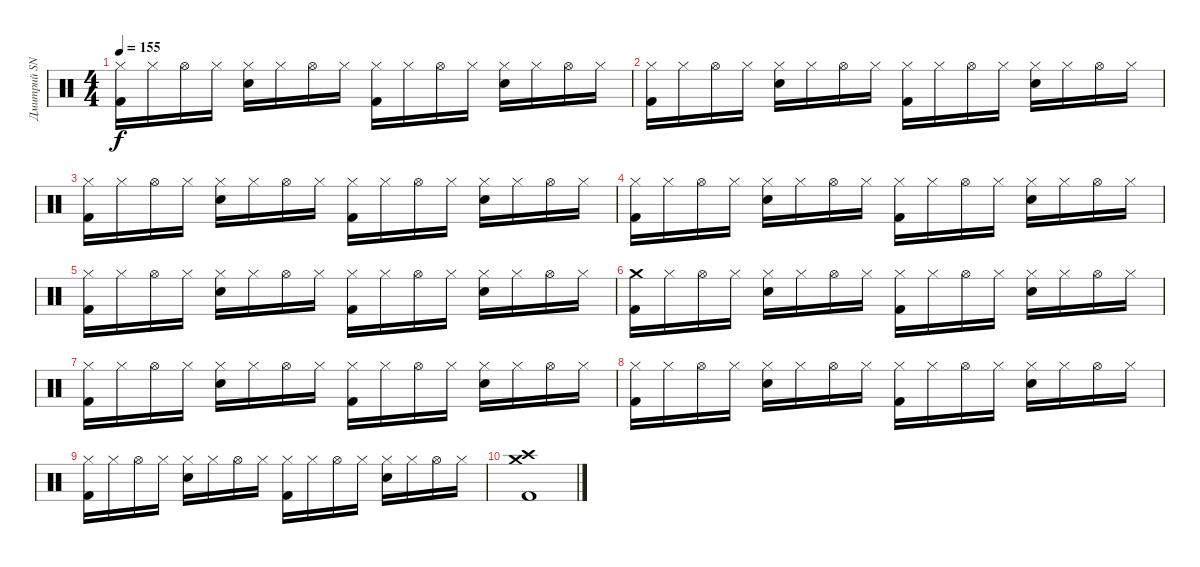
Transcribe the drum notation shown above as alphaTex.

\track ("Дмитрий SNAKE Хакимов" "Дмитрий SN") {instrument percussion}
\staff {score}
\articulation defaults
\ts (4 4)
\tempo 155
\clef neutral
\ks c
("Hi-Hat (closed)" "Kick (hit) 2").16{dy f} "Hi-Hat (closed)".16 "Hi-Hat (open)".16 "Hi-Hat (closed)".16 ("Hi-Hat (closed)" "Snare (hit) 2").16 "Hi-Hat (closed)".16 "Hi-Hat (open)".16 "Hi-Hat (closed)".16 ("Hi-Hat (closed)" "Kick (hit) 2").16 "Hi-Hat (closed)".16 "Hi-Hat (open)".16 "Hi-Hat (closed)".16 ("Hi-Hat (closed)" "Snare (hit) 2").16 "Hi-Hat (closed)".16 "Hi-Hat (open)".16 "Hi-Hat (closed)".16 |
("Hi-Hat (closed)" "Kick (hit) 2").16 "Hi-Hat (closed)".16 "Hi-Hat (open)".16 "Hi-Hat (closed)".16 ("Hi-Hat (closed)" "Snare (hit) 2").16 "Hi-Hat (closed)".16 "Hi-Hat (open)".16 "Hi-Hat (closed)".16 ("Hi-Hat (closed)" "Kick (hit) 2").16 "Hi-Hat (closed)".16 "Hi-Hat (open)".16 "Hi-Hat (closed)".16 ("Hi-Hat (closed)" "Snare (hit) 2").16 "Hi-Hat (closed)".16 "Hi-Hat (open)".16 "Hi-Hat (closed)".16 |
("Hi-Hat (closed)" "Kick (hit) 2").16 "Hi-Hat (closed)".16 "Hi-Hat (open)".16 "Hi-Hat (closed)".16 ("Hi-Hat (closed)" "Snare (hit) 2").16 "Hi-Hat (closed)".16 "Hi-Hat (open)".16 "Hi-Hat (closed)".16 ("Hi-Hat (closed)" "Kick (hit) 2").16 "Hi-Hat (closed)".16 "Hi-Hat (open)".16 "Hi-Hat (closed)".16 ("Hi-Hat (closed)" "Snare (hit) 2").16 "Hi-Hat (closed)".16 "Hi-Hat (open)".16 "Hi-Hat (closed)".16 |
("Hi-Hat (closed)" "Kick (hit) 2").16 "Hi-Hat (closed)".16 "Hi-Hat (open)".16 "Hi-Hat (closed)".16 ("Hi-Hat (closed)" "Snare (hit) 2").16 "Hi-Hat (closed)".16 "Hi-Hat (open)".16 "Hi-Hat (closed)".16 ("Hi-Hat (closed)" "Kick (hit) 2").16 "Hi-Hat (closed)".16 "Hi-Hat (open)".16 "Hi-Hat (closed)".16 ("Hi-Hat (closed)" "Snare (hit) 2").16 "Hi-Hat (closed)".16 "Hi-Hat (open)".16 "Hi-Hat (closed)".16 |
("Hi-Hat (closed)" "Kick (hit) 2").16 "Hi-Hat (closed)".16 "Hi-Hat (open)".16 "Hi-Hat (closed)".16 ("Hi-Hat (closed)" "Snare (hit) 2").16 "Hi-Hat (closed)".16 "Hi-Hat (open)".16 "Hi-Hat (closed)".16 ("Hi-Hat (closed)" "Kick (hit) 2").16 "Hi-Hat (closed)".16 "Hi-Hat (open)".16 "Hi-Hat (closed)".16 ("Hi-Hat (closed)" "Snare (hit) 2").16 "Hi-Hat (closed)".16 "Hi-Hat (open)".16 "Hi-Hat (closed)".16 |
("Crash medium (hit)" "Kick (hit) 2").16 "Hi-Hat (closed)".16 "Hi-Hat (open)".16 "Hi-Hat (closed)".16 ("Hi-Hat (closed)" "Snare (hit) 2").16 "Hi-Hat (closed)".16 "Hi-Hat (open)".16 "Hi-Hat (closed)".16 ("Hi-Hat (closed)" "Kick (hit) 2").16 "Hi-Hat (closed)".16 "Hi-Hat (open)".16 "Hi-Hat (closed)".16 ("Hi-Hat (closed)" "Snare (hit) 2").16 "Hi-Hat (closed)".16 "Hi-Hat (open)".16 "Hi-Hat (closed)".16 |
("Hi-Hat (closed)" "Kick (hit) 2").16 "Hi-Hat (closed)".16 "Hi-Hat (open)".16 "Hi-Hat (closed)".16 ("Hi-Hat (closed)" "Snare (hit) 2").16 "Hi-Hat (closed)".16 "Hi-Hat (open)".16 "Hi-Hat (closed)".16 ("Hi-Hat (closed)" "Kick (hit) 2").16 "Hi-Hat (closed)".16 "Hi-Hat (open)".16 "Hi-Hat (closed)".16 ("Hi-Hat (closed)" "Snare (hit) 2").16 "Hi-Hat (closed)".16 "Hi-Hat (open)".16 "Hi-Hat (closed)".16 |
("Hi-Hat (closed)" "Kick (hit) 2").16 "Hi-Hat (closed)".16 "Hi-Hat (open)".16 "Hi-Hat (closed)".16 ("Hi-Hat (closed)" "Snare (hit) 2").16 "Hi-Hat (closed)".16 "Hi-Hat (open)".16 "Hi-Hat (closed)".16 ("Hi-Hat (closed)" "Kick (hit) 2").16 "Hi-Hat (closed)".16 "Hi-Hat (open)".16 "Hi-Hat (closed)".16 ("Hi-Hat (closed)" "Snare (hit) 2").16 "Hi-Hat (closed)".16 "Hi-Hat (open)".16 "Hi-Hat (closed)".16 |
("Hi-Hat (closed)" "Kick (hit) 2").16 "Hi-Hat (closed)".16 "Hi-Hat (open)".16 "Hi-Hat (closed)".16 ("Hi-Hat (closed)" "Snare (hit) 2").16 "Hi-Hat (closed)".16 "Hi-Hat (open)".16 "Hi-Hat (closed)".16 ("Hi-Hat (closed)" "Kick (hit) 2").16 "Hi-Hat (closed)".16 "Hi-Hat (open)".16 "Hi-Hat (closed)".16 ("Hi-Hat (closed)" "Snare (hit) 2").16 "Hi-Hat (closed)".16 "Hi-Hat (open)".16 "Hi-Hat (closed)".16 |
("Crash high (hit)" "Crash medium (hit)" "Kick (hit) 2").1
